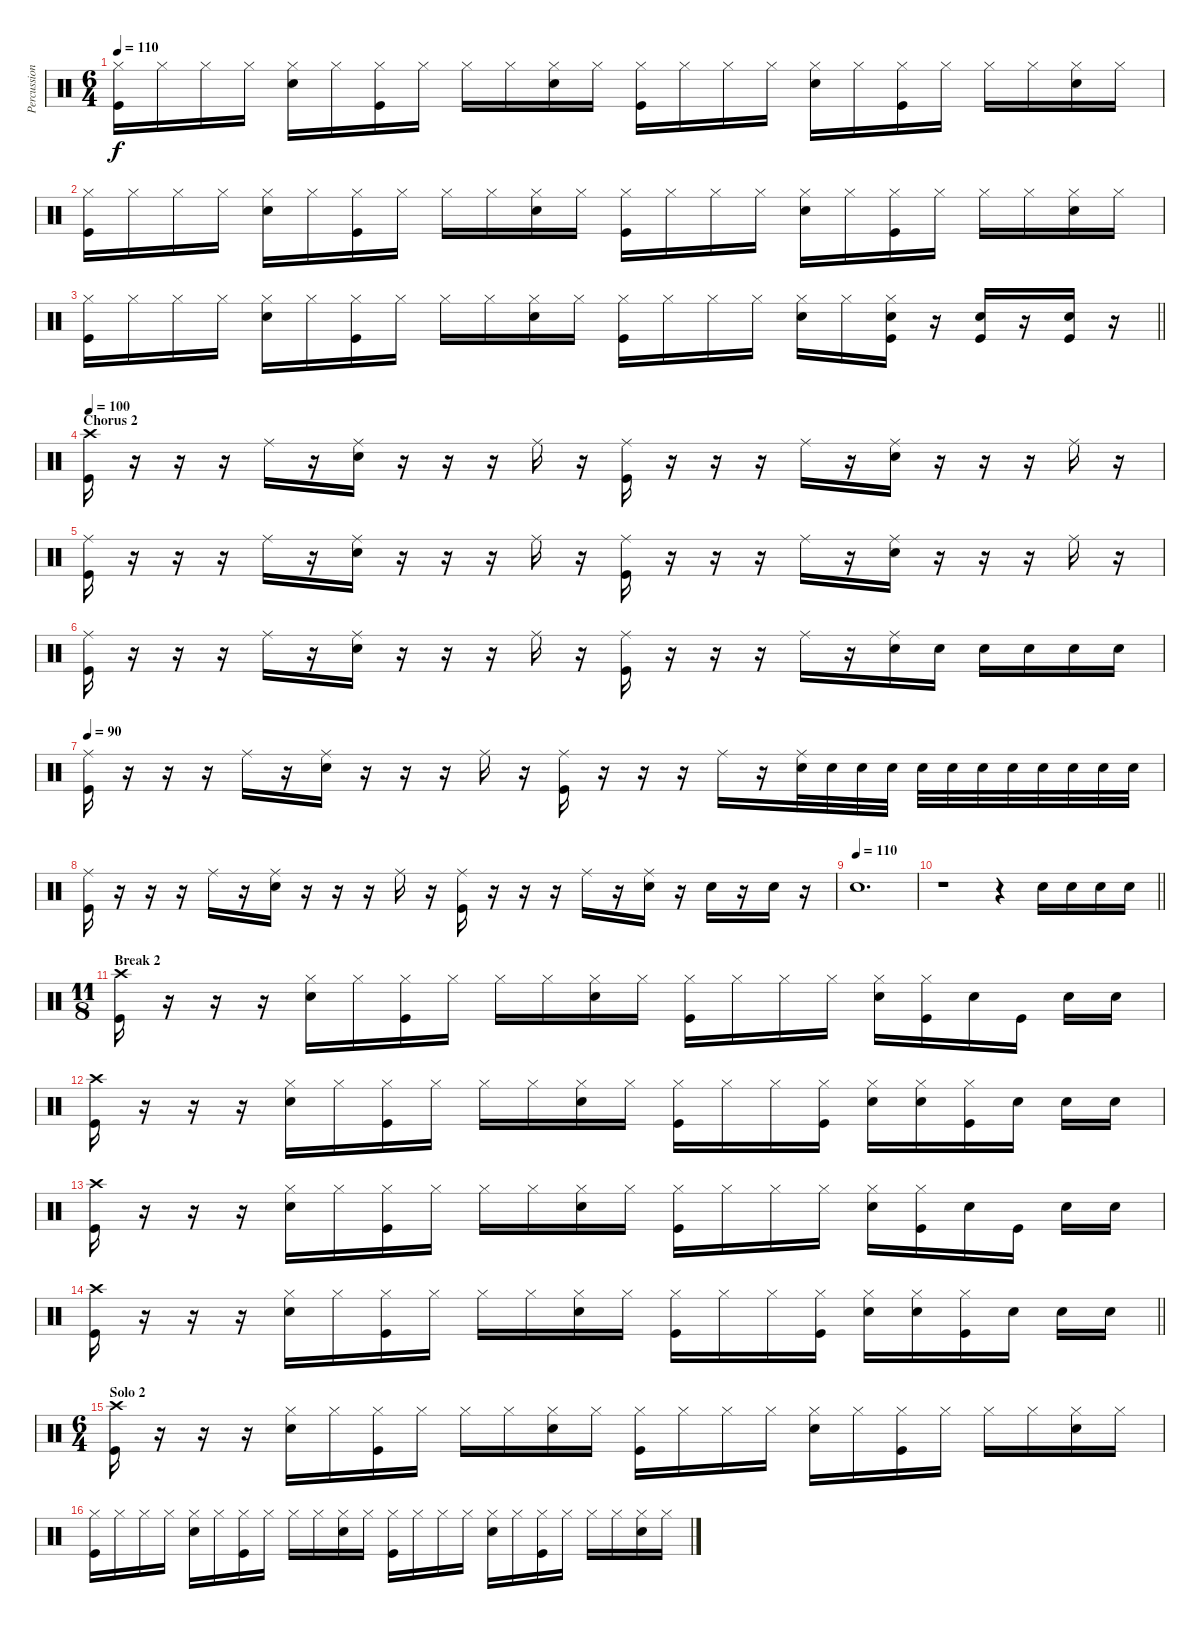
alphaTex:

\track ("Percussion 2" "Percussion") {instrument percussion}
\staff {score}
\articulation defaults
\ts (6 4)
\tempo 110
\clef neutral
\ks c
("Hi-Hat (closed)" "Kick (hit)").16{dy f} "Hi-Hat (closed)".16 "Hi-Hat (closed)".16 "Hi-Hat (closed)".16 ("Hi-Hat (closed)" "Snare (hit) 2").16 "Hi-Hat (closed)".16 ("Hi-Hat (closed)" "Kick (hit)").16 "Hi-Hat (closed)".16 "Hi-Hat (closed)".16 "Hi-Hat (closed)".16 ("Hi-Hat (closed)" "Snare (hit) 2").16 "Hi-Hat (closed)".16 ("Hi-Hat (closed)" "Kick (hit)").16 "Hi-Hat (closed)".16 "Hi-Hat (closed)".16 "Hi-Hat (closed)".16 ("Hi-Hat (closed)" "Snare (hit) 2").16 "Hi-Hat (closed)".16 ("Hi-Hat (closed)" "Kick (hit)").16 "Hi-Hat (closed)".16 "Hi-Hat (closed)".16 "Hi-Hat (closed)".16 ("Hi-Hat (closed)" "Snare (hit) 2").16 "Hi-Hat (closed)".16 |
("Hi-Hat (closed)" "Kick (hit)").16 "Hi-Hat (closed)".16 "Hi-Hat (closed)".16 "Hi-Hat (closed)".16 ("Hi-Hat (closed)" "Snare (hit) 2").16 "Hi-Hat (closed)".16 ("Hi-Hat (closed)" "Kick (hit)").16 "Hi-Hat (closed)".16 "Hi-Hat (closed)".16 "Hi-Hat (closed)".16 ("Hi-Hat (closed)" "Snare (hit) 2").16 "Hi-Hat (closed)".16 ("Hi-Hat (closed)" "Kick (hit)").16 "Hi-Hat (closed)".16 "Hi-Hat (closed)".16 "Hi-Hat (closed)".16 ("Hi-Hat (closed)" "Snare (hit) 2").16 "Hi-Hat (closed)".16 ("Hi-Hat (closed)" "Kick (hit)").16 "Hi-Hat (closed)".16 "Hi-Hat (closed)".16 "Hi-Hat (closed)".16 ("Hi-Hat (closed)" "Snare (hit) 2").16 "Hi-Hat (closed)".16 |
\barLineRight lightlight
("Hi-Hat (closed)" "Kick (hit)").16 "Hi-Hat (closed)".16 "Hi-Hat (closed)".16 "Hi-Hat (closed)".16 ("Hi-Hat (closed)" "Snare (hit) 2").16 "Hi-Hat (closed)".16 ("Hi-Hat (closed)" "Kick (hit)").16 "Hi-Hat (closed)".16 "Hi-Hat (closed)".16 "Hi-Hat (closed)".16 ("Hi-Hat (closed)" "Snare (hit) 2").16 "Hi-Hat (closed)".16 ("Hi-Hat (closed)" "Kick (hit)").16 "Hi-Hat (closed)".16 "Hi-Hat (closed)".16 "Hi-Hat (closed)".16 ("Hi-Hat (closed)" "Snare (hit) 2").16 "Hi-Hat (closed)".16 ("Hi-Hat (closed)" "Snare (hit) 2" "Kick (hit)").16 r.16 ("Snare (hit) 2" "Kick (hit)").16 r.16 ("Snare (hit) 2" "Kick (hit)").16 r.16 |
\section ("" "Chorus 2")
\tempo 100
("Crash high (hit)" "Kick (hit)").16 r.16 r.16 r.16 "Ride (middle)".16 r.16 ("Ride (middle)" "Snare (hit) 2").16 r.16 r.16 r.16 "Ride (middle)".16 r.16 ("Ride (middle)" "Kick (hit)").16 r.16 r.16 r.16 "Ride (middle)".16 r.16 ("Ride (middle)" "Snare (hit) 2").16 r.16 r.16 r.16 "Ride (middle)".16 r.16 |
("Ride (middle)" "Kick (hit)").16 r.16 r.16 r.16 "Ride (middle)".16 r.16 ("Ride (middle)" "Snare (hit) 2").16 r.16 r.16 r.16 "Ride (middle)".16 r.16 ("Ride (middle)" "Kick (hit)").16 r.16 r.16 r.16 "Ride (middle)".16 r.16 ("Ride (middle)" "Snare (hit) 2").16 r.16 r.16 r.16 "Ride (middle)".16 r.16 |
("Ride (middle)" "Kick (hit)").16 r.16 r.16 r.16 "Ride (middle)".16 r.16 ("Ride (middle)" "Snare (hit) 2").16 r.16 r.16 r.16 "Ride (middle)".16 r.16 ("Ride (middle)" "Kick (hit)").16 r.16 r.16 r.16 "Ride (middle)".16 r.16 ("Ride (middle)" "Snare (hit) 2").16 "Snare (hit) 2".16 "Snare (hit) 2".16 "Snare (hit) 2".16 "Snare (hit) 2".16 "Snare (hit) 2".16 |
\tempo 90
("Ride (middle)" "Kick (hit)").16 r.16 r.16 r.16 "Ride (middle)".16 r.16 ("Ride (middle)" "Snare (hit) 2").16 r.16 r.16 r.16 "Ride (middle)".16 r.16 ("Ride (middle)" "Kick (hit)").16 r.16 r.16 r.16 "Ride (middle)".16 r.16 ("Ride (middle)" "Snare (hit) 2").32 "Snare (hit) 2".32 "Snare (hit) 2".32 "Snare (hit) 2".32 "Snare (hit) 2".32 "Snare (hit) 2".32 "Snare (hit) 2".32 "Snare (hit) 2".32 "Snare (hit) 2".32 "Snare (hit) 2".32 "Snare (hit) 2".32 "Snare (hit) 2".32 |
("Ride (middle)" "Kick (hit)").16 r.16 r.16 r.16 "Ride (middle)".16 r.16 ("Ride (middle)" "Snare (hit) 2").16 r.16 r.16 r.16 "Ride (middle)".16 r.16 ("Ride (middle)" "Kick (hit)").16 r.16 r.16 r.16 "Ride (middle)".16 r.16 ("Ride (middle)" "Snare (hit) 2").16 r.16 "Snare (hit) 2".16 r.16 "Snare (hit) 2".16 r.16 |
\tempo (110)
"Snare (hit) 2".1{d} |
\barLineRight lightlight
r.1 r.4 "Snare (hit) 2".16 "Snare (hit) 2".16 "Snare (hit) 2".16 "Snare (hit) 2".16 |
\ts (11 8)
\section ("" "Break 2")
("Crash high (hit)" "Kick (hit)").16 r.16 r.16 r.16 ("Hi-Hat (closed)" "Snare (hit) 2").16 "Hi-Hat (closed)".16 ("Hi-Hat (closed)" "Kick (hit)").16 "Hi-Hat (closed)".16 "Hi-Hat (closed)".16 "Hi-Hat (closed)".16 ("Hi-Hat (closed)" "Snare (hit) 2").16 "Hi-Hat (closed)".16 ("Hi-Hat (closed)" "Kick (hit)").16 "Hi-Hat (closed)".16 "Hi-Hat (closed)".16 "Hi-Hat (closed)".16 ("Hi-Hat (closed)" "Snare (hit) 2").16 ("Hi-Hat (closed)" "Kick (hit)").16 "Snare (hit) 2".16 "Kick (hit)".16 "Snare (hit) 2".16 "Snare (hit) 2".16 |
("Crash high (hit)" "Kick (hit)").16 r.16 r.16 r.16 ("Hi-Hat (closed)" "Snare (hit) 2").16 "Hi-Hat (closed)".16 ("Hi-Hat (closed)" "Kick (hit)").16 "Hi-Hat (closed)".16 "Hi-Hat (closed)".16 "Hi-Hat (closed)".16 ("Hi-Hat (closed)" "Snare (hit) 2").16 "Hi-Hat (closed)".16 ("Hi-Hat (closed)" "Kick (hit)").16 "Hi-Hat (closed)".16 "Hi-Hat (closed)".16 ("Hi-Hat (closed)" "Kick (hit)").16 ("Hi-Hat (closed)" "Snare (hit) 2").16 ("Hi-Hat (closed)" "Snare (hit) 2").16 ("Hi-Hat (closed)" "Kick (hit)").16 "Snare (hit) 2".16 "Snare (hit) 2".16 "Snare (hit) 2".16 |
("Crash high (hit)" "Kick (hit)").16 r.16 r.16 r.16 ("Hi-Hat (closed)" "Snare (hit) 2").16 "Hi-Hat (closed)".16 ("Hi-Hat (closed)" "Kick (hit)").16 "Hi-Hat (closed)".16 "Hi-Hat (closed)".16 "Hi-Hat (closed)".16 ("Hi-Hat (closed)" "Snare (hit) 2").16 "Hi-Hat (closed)".16 ("Hi-Hat (closed)" "Kick (hit)").16 "Hi-Hat (closed)".16 "Hi-Hat (closed)".16 "Hi-Hat (closed)".16 ("Hi-Hat (closed)" "Snare (hit) 2").16 ("Hi-Hat (closed)" "Kick (hit)").16 "Snare (hit) 2".16 "Kick (hit)".16 "Snare (hit) 2".16 "Snare (hit) 2".16 |
\barLineRight lightlight
("Crash high (hit)" "Kick (hit)").16 r.16 r.16 r.16 ("Hi-Hat (closed)" "Snare (hit) 2").16 "Hi-Hat (closed)".16 ("Hi-Hat (closed)" "Kick (hit)").16 "Hi-Hat (closed)".16 "Hi-Hat (closed)".16 "Hi-Hat (closed)".16 ("Hi-Hat (closed)" "Snare (hit) 2").16 "Hi-Hat (closed)".16 ("Hi-Hat (closed)" "Kick (hit)").16 "Hi-Hat (closed)".16 "Hi-Hat (closed)".16 ("Hi-Hat (closed)" "Kick (hit)").16 ("Hi-Hat (closed)" "Snare (hit) 2").16 ("Hi-Hat (closed)" "Snare (hit) 2").16 ("Hi-Hat (closed)" "Kick (hit)").16 "Snare (hit) 2".16 "Snare (hit) 2".16 "Snare (hit) 2".16 |
\ts (6 4)
\section ("" "Solo 2")
("Crash high (hit)" "Kick (hit)").16 r.16 r.16 r.16 ("Hi-Hat (closed)" "Snare (hit) 2").16 "Hi-Hat (closed)".16 ("Hi-Hat (closed)" "Kick (hit)").16 "Hi-Hat (closed)".16 "Hi-Hat (closed)".16 "Hi-Hat (closed)".16 ("Hi-Hat (closed)" "Snare (hit) 2").16 "Hi-Hat (closed)".16 ("Hi-Hat (closed)" "Kick (hit)").16 "Hi-Hat (closed)".16 "Hi-Hat (closed)".16 "Hi-Hat (closed)".16 ("Hi-Hat (closed)" "Snare (hit) 2").16 "Hi-Hat (closed)".16 ("Hi-Hat (closed)" "Kick (hit)").16 "Hi-Hat (closed)".16 "Hi-Hat (closed)".16 "Hi-Hat (closed)".16 ("Hi-Hat (closed)" "Snare (hit) 2").16 "Hi-Hat (closed)".16 |
("Hi-Hat (closed)" "Kick (hit)").16 "Hi-Hat (closed)".16 "Hi-Hat (closed)".16 "Hi-Hat (closed)".16 ("Hi-Hat (closed)" "Snare (hit) 2").16 "Hi-Hat (closed)".16 ("Hi-Hat (closed)" "Kick (hit)").16 "Hi-Hat (closed)".16 "Hi-Hat (closed)".16 "Hi-Hat (closed)".16 ("Hi-Hat (closed)" "Snare (hit) 2").16 "Hi-Hat (closed)".16 ("Hi-Hat (closed)" "Kick (hit)").16 "Hi-Hat (closed)".16 "Hi-Hat (closed)".16 "Hi-Hat (closed)".16 ("Hi-Hat (closed)" "Snare (hit) 2").16 "Hi-Hat (closed)".16 ("Hi-Hat (closed)" "Kick (hit)").16 "Hi-Hat (closed)".16 "Hi-Hat (closed)".16 "Hi-Hat (closed)".16 ("Hi-Hat (closed)" "Snare (hit) 2").16 "Hi-Hat (closed)".16
